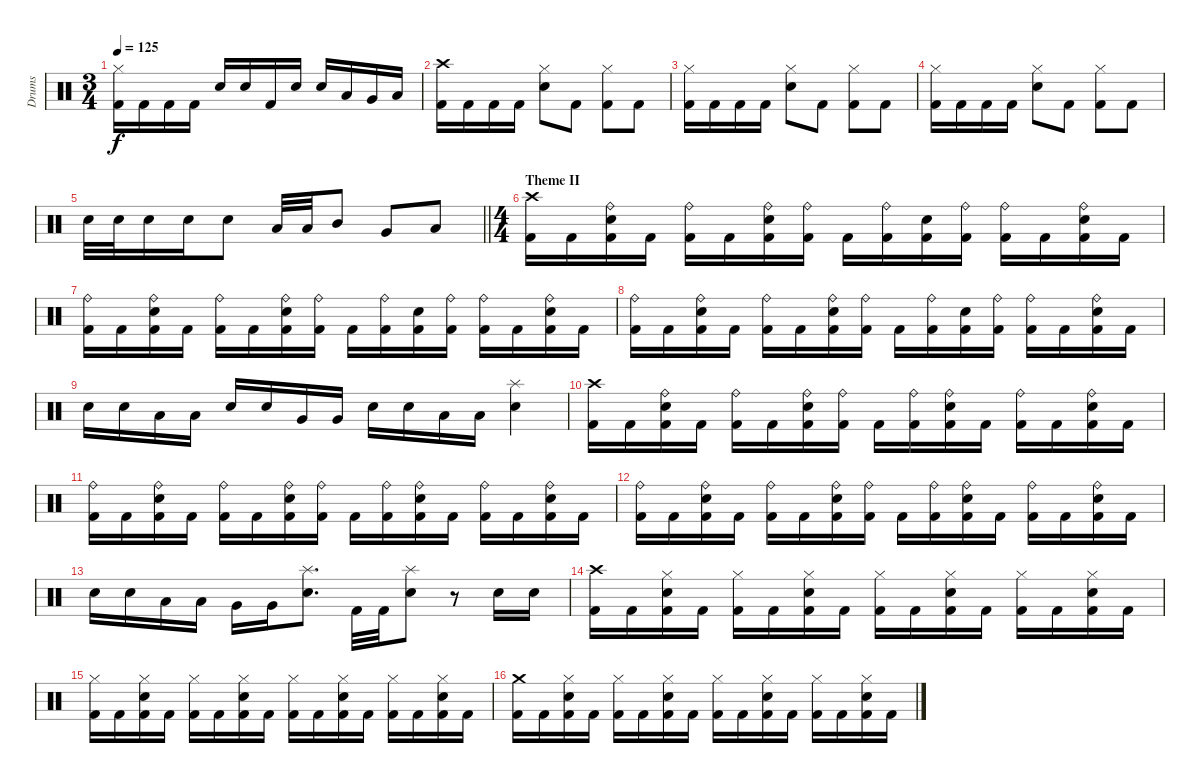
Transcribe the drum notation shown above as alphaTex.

\track ("Drums" "Drums") {instrument percussion}
\staff {score}
\articulation defaults
\ts (3 4)
\tempo 125
\clef neutral
\ks c
("Kick (hit) 2" "Hi-Hat (closed)").16{dy f} "Kick (hit) 2".16 "Kick (hit) 2".16 "Kick (hit) 2".16 "Electric Snare (hit)".16 "Electric Snare (hit)".16 "Kick (hit) 2".16 "Electric Snare (hit)".16 "Electric Snare (hit)".16 "Low Tom (hit)".16 "Very Low Tom (hit)".16 "Low Floor Tom (hit)".16 |
("Kick (hit) 2" "Crash high (hit)").16 "Kick (hit) 2".16 "Kick (hit) 2".16 "Kick (hit) 2".16 ("Hi-Hat (closed)" "Electric Snare (hit)").8 "Kick (hit) 2".8 ("Kick (hit) 2" "Hi-Hat (closed)").8 "Kick (hit) 2".8 |
("Kick (hit) 2" "Hi-Hat (closed)").16 "Kick (hit) 2".16 "Kick (hit) 2".16 "Kick (hit) 2".16 ("Hi-Hat (closed)" "Electric Snare (hit)").8 "Kick (hit) 2".8 ("Kick (hit) 2" "Hi-Hat (closed)").8 "Kick (hit) 2".8 |
("Kick (hit) 2" "Hi-Hat (closed)").16 "Kick (hit) 2".16 "Kick (hit) 2".16 "Kick (hit) 2".16 ("Hi-Hat (closed)" "Electric Snare (hit)").8 "Kick (hit) 2".8 ("Kick (hit) 2" "Hi-Hat (closed)").8 "Kick (hit) 2".8 |
\barLineRight lightlight "Electric Snare (hit)".32 "Electric Snare (hit)".32 "Electric Snare (hit)".16 "Electric Snare (hit)".16 "Electric Snare (hit)".8 "Low Tom (hit)".32 "Low Tom (hit)".32 "Mid Tom (hit)".8 "Very Low Tom (hit)".8 "Low Floor Tom (hit)".8
|
\ts (4 4)
\section ("" "Theme II")
("Kick (hit) 2" "Crash high (hit)").16 "Kick (hit) 2".16 ("Kick (hit) 2" "Ride (bell)" "Electric Snare (hit)").16 "Kick (hit) 2".16 ("Kick (hit) 2" "Ride (bell)").16 "Kick (hit) 2".16 ("Kick (hit) 2" "Ride (bell)" "Electric Snare (hit)").16 ("Kick (hit) 2" "Ride (bell)").16 "Kick (hit) 2".16 ("Kick (hit) 2" "Ride (bell)").16 ("Kick (hit) 2" "Electric Snare (hit)").16 ("Kick (hit) 2" "Ride (bell)").16 ("Kick (hit) 2" "Ride (bell)").16 "Kick (hit) 2".16 ("Kick (hit) 2" "Ride (bell)" "Electric Snare (hit)").16 "Kick (hit) 2".16 |
("Kick (hit) 2" "Ride (bell)").16 "Kick (hit) 2".16 ("Kick (hit) 2" "Ride (bell)" "Electric Snare (hit)").16 "Kick (hit) 2".16 ("Kick (hit) 2" "Ride (bell)").16 "Kick (hit) 2".16 ("Kick (hit) 2" "Ride (bell)" "Electric Snare (hit)").16 ("Kick (hit) 2" "Ride (bell)").16 "Kick (hit) 2".16 ("Kick (hit) 2" "Ride (bell)").16 ("Kick (hit) 2" "Electric Snare (hit)").16 ("Kick (hit) 2" "Ride (bell)").16 ("Kick (hit) 2" "Ride (bell)").16 "Kick (hit) 2".16 ("Kick (hit) 2" "Ride (bell)" "Electric Snare (hit)").16 "Kick (hit) 2".16 |
("Kick (hit) 2" "Ride (bell)").16 "Kick (hit) 2".16 ("Kick (hit) 2" "Ride (bell)" "Electric Snare (hit)").16 "Kick (hit) 2".16 ("Kick (hit) 2" "Ride (bell)").16 "Kick (hit) 2".16 ("Kick (hit) 2" "Ride (bell)" "Electric Snare (hit)").16 ("Kick (hit) 2" "Ride (bell)").16 "Kick (hit) 2".16 ("Kick (hit) 2" "Ride (bell)").16 ("Kick (hit) 2" "Electric Snare (hit)").16 ("Kick (hit) 2" "Ride (bell)").16 ("Kick (hit) 2" "Ride (bell)").16 "Kick (hit) 2".16 ("Kick (hit) 2" "Ride (bell)" "Electric Snare (hit)").16 "Kick (hit) 2".16 |
"Electric Snare (hit)".16 "Electric Snare (hit)".16 "Low Tom (hit)".16 "Low Tom (hit)".16 "Electric Snare (hit)".16 "Electric Snare (hit)".16 "Very Low Tom (hit)".16 "Very Low Tom (hit)".16 "Electric Snare (hit)".16 "Electric Snare (hit)".16 "Low Tom (hit)".16 "Low Tom (hit)".16 ("Splash (hit)" "Electric Snare (hit)").4 |
("Kick (hit) 2" "Crash high (hit)").16 "Kick (hit) 2".16 ("Kick (hit) 2" "Ride (bell)" "Electric Snare (hit)").16 "Kick (hit) 2".16 ("Kick (hit) 2" "Ride (bell)").16 "Kick (hit) 2".16 ("Kick (hit) 2" "Ride (bell)" "Electric Snare (hit)").16 ("Kick (hit) 2" "Ride (bell)").16 "Kick (hit) 2".16 ("Kick (hit) 2" "Ride (bell)").16 ("Kick (hit) 2" "Ride (bell)" "Electric Snare (hit)").16 "Kick (hit) 2".16 ("Kick (hit) 2" "Ride (bell)").16 "Kick (hit) 2".16 ("Kick (hit) 2" "Ride (bell)" "Electric Snare (hit)").16 "Kick (hit) 2".16 |
("Kick (hit) 2" "Ride (bell)").16 "Kick (hit) 2".16 ("Kick (hit) 2" "Ride (bell)" "Electric Snare (hit)").16 "Kick (hit) 2".16 ("Kick (hit) 2" "Ride (bell)").16 "Kick (hit) 2".16 ("Kick (hit) 2" "Ride (bell)" "Electric Snare (hit)").16 ("Kick (hit) 2" "Ride (bell)").16 "Kick (hit) 2".16 ("Kick (hit) 2" "Ride (bell)").16 ("Kick (hit) 2" "Ride (bell)" "Electric Snare (hit)").16 "Kick (hit) 2".16 ("Kick (hit) 2" "Ride (bell)").16 "Kick (hit) 2".16 ("Kick (hit) 2" "Ride (bell)" "Electric Snare (hit)").16 "Kick (hit) 2".16 |
("Kick (hit) 2" "Ride (bell)").16 "Kick (hit) 2".16 ("Kick (hit) 2" "Ride (bell)" "Electric Snare (hit)").16 "Kick (hit) 2".16 ("Kick (hit) 2" "Ride (bell)").16 "Kick (hit) 2".16 ("Kick (hit) 2" "Ride (bell)" "Electric Snare (hit)").16 ("Kick (hit) 2" "Ride (bell)").16 "Kick (hit) 2".16 ("Kick (hit) 2" "Ride (bell)").16 ("Kick (hit) 2" "Ride (bell)" "Electric Snare (hit)").16 "Kick (hit) 2".16 ("Kick (hit) 2" "Ride (bell)").16 "Kick (hit) 2".16 ("Kick (hit) 2" "Ride (bell)" "Electric Snare (hit)").16 "Kick (hit) 2".16 |
"Electric Snare (hit)".16 "Electric Snare (hit)".16 "Low Tom (hit)".16 "Low Tom (hit)".16 "Very Low Tom (hit)".16 "Very Low Tom (hit)".16 ("Splash (hit)" "Electric Snare (hit)").8{d} "Kick (hit) 2".32 "Kick (hit) 2".32 ("Splash (hit)" "Electric Snare (hit)").8 r.8 "Electric Snare (hit)".16 "Electric Snare (hit)".16 |
("Kick (hit) 2" "Crash high (hit)").16 "Kick (hit) 2".16 ("Kick (hit) 2" "Hi-Hat (closed)" "Electric Snare (hit)").16 "Kick (hit) 2".16 ("Kick (hit) 2" "Hi-Hat (closed)").16 "Kick (hit) 2".16 ("Kick (hit) 2" "Hi-Hat (closed)" "Electric Snare (hit)").16 "Kick (hit) 2".16 ("Kick (hit) 2" "Hi-Hat (closed)").16 "Kick (hit) 2".16 ("Kick (hit) 2" "Hi-Hat (closed)" "Electric Snare (hit)").16 "Kick (hit) 2".16 ("Kick (hit) 2" "Hi-Hat (closed)").16 "Kick (hit) 2".16 ("Kick (hit) 2" "Hi-Hat (closed)" "Electric Snare (hit)").16 "Kick (hit) 2".16 |
("Kick (hit) 2" "Hi-Hat (closed)").16 "Kick (hit) 2".16 ("Kick (hit) 2" "Hi-Hat (closed)" "Electric Snare (hit)").16 "Kick (hit) 2".16 ("Kick (hit) 2" "Hi-Hat (closed)").16 "Kick (hit) 2".16 ("Kick (hit) 2" "Hi-Hat (closed)" "Electric Snare (hit)").16 "Kick (hit) 2".16 ("Kick (hit) 2" "Hi-Hat (closed)").16 "Kick (hit) 2".16 ("Kick (hit) 2" "Hi-Hat (closed)" "Electric Snare (hit)").16 "Kick (hit) 2".16 ("Kick (hit) 2" "Hi-Hat (closed)").16 "Kick (hit) 2".16 ("Kick (hit) 2" "Hi-Hat (closed)" "Electric Snare (hit)").16 "Kick (hit) 2".16 |
("Kick (hit) 2" "Crash medium (hit)").16 "Kick (hit) 2".16 ("Kick (hit) 2" "Hi-Hat (closed)" "Electric Snare (hit)").16 "Kick (hit) 2".16 ("Kick (hit) 2" "Hi-Hat (closed)").16 "Kick (hit) 2".16 ("Kick (hit) 2" "Hi-Hat (closed)" "Electric Snare (hit)").16 "Kick (hit) 2".16 ("Kick (hit) 2" "Hi-Hat (closed)").16 "Kick (hit) 2".16 ("Kick (hit) 2" "Hi-Hat (closed)" "Electric Snare (hit)").16 "Kick (hit) 2".16 ("Kick (hit) 2" "Hi-Hat (closed)").16 "Kick (hit) 2".16 ("Kick (hit) 2" "Hi-Hat (closed)" "Electric Snare (hit)").16 "Kick (hit) 2".16
